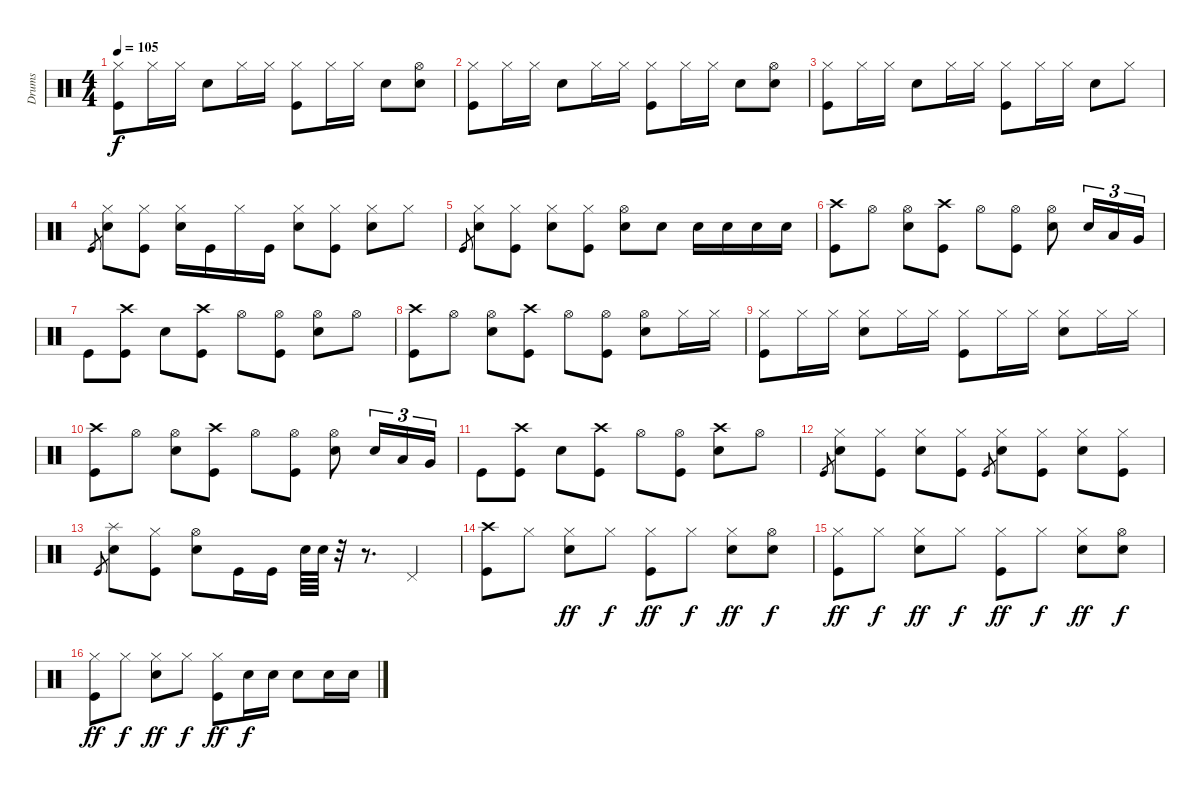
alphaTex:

\track ("Drums" "Drums") {instrument percussion}
\staff {score}
\articulation defaults
\ts (4 4)
\tempo 105
\clef neutral
\ks c
("Hi-Hat (closed)" "Kick (hit)").8{dy f} "Hi-Hat (closed)".16 "Hi-Hat (closed)".16 "Snare (hit) 2".8 "Hi-Hat (closed)".16 "Hi-Hat (closed)".16 ("Hi-Hat (closed)" "Kick (hit)").8 "Hi-Hat (closed)".16 "Hi-Hat (closed)".16 "Snare (hit) 2".8 ("Hi-Hat (open)" "Snare (hit) 2").8 |
("Hi-Hat (closed)" "Kick (hit)").8 "Hi-Hat (closed)".16 "Hi-Hat (closed)".16 "Snare (hit) 2".8 "Hi-Hat (closed)".16 "Hi-Hat (closed)".16 ("Hi-Hat (closed)" "Kick (hit)").8 "Hi-Hat (closed)".16 "Hi-Hat (closed)".16 "Snare (hit) 2".8 ("Hi-Hat (open)" "Snare (hit) 2").8 |
("Hi-Hat (closed)" "Kick (hit)").8 "Hi-Hat (closed)".16 "Hi-Hat (closed)".16 "Snare (hit) 2".8 "Hi-Hat (closed)".16 "Hi-Hat (closed)".16 ("Hi-Hat (closed)" "Kick (hit)").8 "Hi-Hat (closed)".16 "Hi-Hat (closed)".16 "Snare (hit) 2".8 "Hi-Hat (closed)".8 |
"Kick (hit)".8{gr} ("Hi-Hat (closed)" "Snare (hit) 2").8 ("Hi-Hat (closed)" "Kick (hit)").8 ("Hi-Hat (closed)" "Snare (hit) 2").16 "Kick (hit)".16 "Hi-Hat (closed)".16 "Kick (hit)".16 ("Hi-Hat (closed)" "Snare (hit) 2").8 ("Hi-Hat (closed)" "Kick (hit)").8 ("Hi-Hat (closed)" "Snare (hit) 2").8 "Hi-Hat (closed)".8 |
"Kick (hit)".8{gr} ("Hi-Hat (closed)" "Snare (hit) 2").8 ("Hi-Hat (closed)" "Kick (hit)").8 ("Hi-Hat (closed)" "Snare (hit) 2").8 ("Hi-Hat (closed)" "Kick (hit)").8 ("Hi-Hat (open)" "Snare (hit) 2").8 "Snare (hit) 2".8 "Snare (hit) 2".16 "Snare (hit) 2".16 "Snare (hit) 2".16 "Snare (hit) 2".16 |
("Kick (hit)" "Crash high (hit)").8 "Hi-Hat (open)".8 ("Hi-Hat (open)" "Snare (hit) 2").8 ("Kick (hit)" "Crash high (hit)").8 "Hi-Hat (open)".8 ("Hi-Hat (open)" "Kick (hit)").8 ("Hi-Hat (open)" "Snare (hit) 2").8 "Snare (hit) 2".16{tu (3 2)} "Low Tom (hit)".16{tu (3 2)} "Very Low Tom (hit)".16{tu (3 2)} |
"Kick (hit)".8 ("Crash high (hit)" "Kick (hit)").8 "Snare (hit) 2".8 ("Crash high (hit)" "Kick (hit)").8 "Hi-Hat (open)".8 ("Hi-Hat (open)" "Kick (hit)").8 ("Hi-Hat (open)" "Snare (hit) 2").8 "Hi-Hat (open)".8 |
("Kick (hit)" "Crash high (hit)").8 "Hi-Hat (open)".8 ("Hi-Hat (open)" "Snare (hit) 2").8 ("Kick (hit)" "Crash high (hit)").8 "Hi-Hat (open)".8 ("Hi-Hat (open)" "Kick (hit)").8 ("Hi-Hat (open)" "Snare (hit) 2").8 "Hi-Hat (closed)".16 "Hi-Hat (closed)".16 |
("Hi-Hat (closed)" "Kick (hit)").8 "Hi-Hat (closed)".16 "Hi-Hat (closed)".16 ("Hi-Hat (closed)" "Snare (hit) 2").8 "Hi-Hat (closed)".16 "Hi-Hat (closed)".16 ("Hi-Hat (closed)" "Kick (hit)").8 "Hi-Hat (closed)".16 "Hi-Hat (closed)".16 ("Hi-Hat (closed)" "Snare (hit) 2").8 "Hi-Hat (closed)".16 "Hi-Hat (closed)".16 |
("Kick (hit)" "Crash high (hit)").8 "Hi-Hat (open)".8 ("Hi-Hat (open)" "Snare (hit) 2").8 ("Kick (hit)" "Crash high (hit)").8 "Hi-Hat (open)".8 ("Hi-Hat (open)" "Kick (hit)").8 ("Hi-Hat (open)" "Snare (hit) 2").8 "Snare (hit) 2".16{tu (3 2)} "Low Tom (hit)".16{tu (3 2)} "Very Low Tom (hit)".16{tu (3 2)} |
"Kick (hit)".8 ("Crash high (hit)" "Kick (hit)").8 "Snare (hit) 2".8 ("Crash high (hit)" "Kick (hit)").8 "Hi-Hat (open)".8 ("Hi-Hat (open)" "Kick (hit)").8 ("Crash high (hit)" "Snare (hit) 2").8 "Hi-Hat (open)".8 |
"Kick (hit)".8{gr} ("Hi-Hat (closed)" "Snare (hit) 2").8 ("Hi-Hat (closed)" "Kick (hit)").8 ("Hi-Hat (closed)" "Snare (hit) 2").8 ("Hi-Hat (closed)" "Kick (hit)").8 "Kick (hit)".8{gr} ("Hi-Hat (closed)" "Snare (hit) 2").8 ("Hi-Hat (closed)" "Kick (hit)").8 ("Hi-Hat (closed)" "Snare (hit) 2").8 ("Hi-Hat (closed)" "Kick (hit)").8 |
"Kick (hit)".8{gr} ("Splash (hit)" "Snare (hit) 2").8 ("Hi-Hat (closed)" "Kick (hit)").8 ("Hi-Hat (open)" "Snare (hit) 2").8 "Kick (hit)".16 "Kick (hit)".16 "Snare (hit) 2".64 "Snare (hit) 2".64 r.32 r.8{d} "Pedal Hi-Hat (hit)".4 |
("Crash high (hit)" "Kick (hit)").8 "Hi-Hat (closed)".8 ("Hi-Hat (closed)" "Snare (hit) 2").8{dy ff} "Hi-Hat (closed)".8{dy f} ("Hi-Hat (closed)" "Kick (hit)").8{dy ff} "Hi-Hat (closed)".8{dy f} ("Hi-Hat (closed)" "Snare (hit) 2").8{dy ff} ("Hi-Hat (open)" "Snare (hit) 2").8{dy f} |
("Hi-Hat (closed)" "Kick (hit)").8{dy ff} "Hi-Hat (closed)".8{dy f} ("Hi-Hat (closed)" "Snare (hit) 2").8{dy ff} "Hi-Hat (closed)".8{dy f} ("Hi-Hat (closed)" "Kick (hit)").8{dy ff} "Hi-Hat (closed)".8{dy f} ("Hi-Hat (closed)" "Snare (hit) 2").8{dy ff} ("Hi-Hat (open)" "Snare (hit) 2").8{dy f} |
("Hi-Hat (closed)" "Kick (hit)").8{dy ff} "Hi-Hat (closed)".8{dy f} ("Hi-Hat (closed)" "Snare (hit) 2").8{dy ff} "Hi-Hat (closed)".8{dy f} ("Hi-Hat (closed)" "Kick (hit)").8{dy ff} "Snare (hit) 2".16{dy f} "Snare (hit) 2".16 "Snare (hit) 2".8 "Snare (hit) 2".16 "Snare (hit) 2".16
